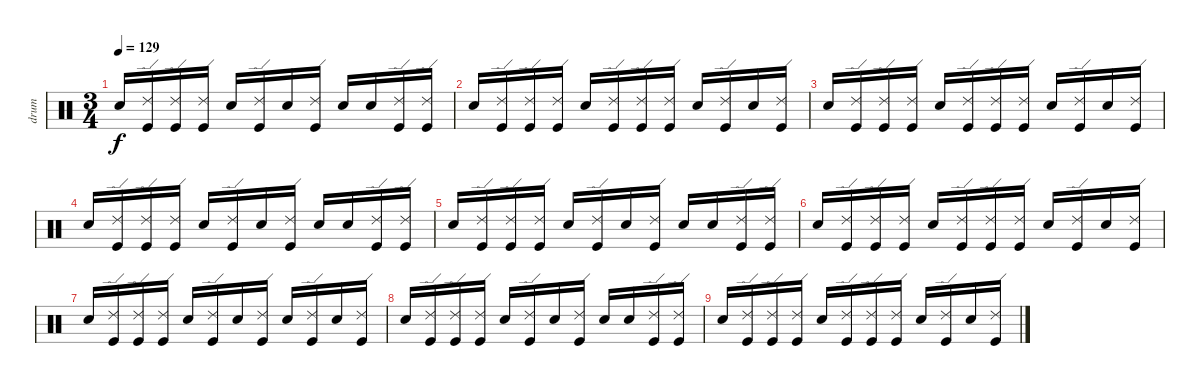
\track ("drum" "drum") {instrument percussion}
\staff {score}
\articulation defaults
\ts (3 4)
\tempo 129
\clef neutral
\ks c "Electric Snare (hit)".16{dy f}
("Kick (hit)" "Ride (edge) 2").16 ("Kick (hit)" "Ride (edge) 2").16 ("Kick (hit)" "Ride (edge) 2").16 "Electric Snare (hit)".16 ("Kick (hit)" "Ride (edge) 2").16 "Electric Snare (hit)".16 ("Kick (hit)" "Ride (edge) 2").16 "Electric Snare (hit)".16 "Electric Snare (hit)".16 ("Kick (hit)" "Ride (edge) 2").16 ("Kick (hit)" "Ride (edge) 2").16 |
"Electric Snare (hit)".16 ("Kick (hit)" "Ride (edge) 2").16 ("Kick (hit)" "Ride (edge) 2").16 ("Kick (hit)" "Ride (edge) 2").16 "Electric Snare (hit)".16 ("Kick (hit)" "Ride (edge) 2").16 ("Kick (hit)" "Ride (edge) 2").16 ("Kick (hit)" "Ride (edge) 2").16 "Electric Snare (hit)".16 ("Kick (hit)" "Ride (edge) 2").16 "Electric Snare (hit)".16 ("Kick (hit)" "Ride (edge) 2").16 |
"Electric Snare (hit)".16 ("Kick (hit)" "Ride (edge) 2").16 ("Kick (hit)" "Ride (edge) 2").16 ("Kick (hit)" "Ride (edge) 2").16 "Electric Snare (hit)".16 ("Kick (hit)" "Ride (edge) 2").16 ("Kick (hit)" "Ride (edge) 2").16 ("Kick (hit)" "Ride (edge) 2").16 "Electric Snare (hit)".16 ("Kick (hit)" "Ride (edge) 2").16 "Electric Snare (hit)".16 ("Kick (hit)" "Ride (edge) 2").16 |
"Electric Snare (hit)".16 ("Kick (hit)" "Ride (edge) 2").16 ("Kick (hit)" "Ride (edge) 2").16 ("Kick (hit)" "Ride (edge) 2").16 "Electric Snare (hit)".16 ("Kick (hit)" "Ride (edge) 2").16 "Electric Snare (hit)".16 ("Kick (hit)" "Ride (edge) 2").16 "Electric Snare (hit)".16 "Electric Snare (hit)".16 ("Kick (hit)" "Ride (edge) 2").16 ("Kick (hit)" "Ride (edge) 2").16 |
"Electric Snare (hit)".16 ("Kick (hit)" "Ride (edge) 2").16 ("Kick (hit)" "Ride (edge) 2").16 ("Kick (hit)" "Ride (edge) 2").16 "Electric Snare (hit)".16 ("Kick (hit)" "Ride (edge) 2").16 "Electric Snare (hit)".16 ("Kick (hit)" "Ride (edge) 2").16 "Electric Snare (hit)".16 "Electric Snare (hit)".16 ("Kick (hit)" "Ride (edge) 2").16 ("Kick (hit)" "Ride (edge) 2").16 |
"Electric Snare (hit)".16 ("Kick (hit)" "Ride (edge) 2").16 ("Kick (hit)" "Ride (edge) 2").16 ("Kick (hit)" "Ride (edge) 2").16 "Electric Snare (hit)".16 ("Kick (hit)" "Ride (edge) 2").16 ("Kick (hit)" "Ride (edge) 2").16 ("Kick (hit)" "Ride (edge) 2").16 "Electric Snare (hit)".16 ("Kick (hit)" "Ride (edge) 2").16 "Electric Snare (hit)".16 ("Kick (hit)" "Ride (edge) 2").16 |
"Electric Snare (hit)".16 ("Kick (hit)" "Ride (edge) 2").16 ("Kick (hit)" "Ride (edge) 2").16 ("Kick (hit)" "Ride (edge) 2").16 "Electric Snare (hit)".16 ("Kick (hit)" "Ride (edge) 2").16 "Electric Snare (hit)".16 ("Kick (hit)" "Ride (edge) 2").16 "Electric Snare (hit)".16 ("Kick (hit)" "Ride (edge) 2").16 "Electric Snare (hit)".16 ("Kick (hit)" "Ride (edge) 2").16 |
"Electric Snare (hit)".16 ("Kick (hit)" "Ride (edge) 2").16 ("Kick (hit)" "Ride (edge) 2").16 ("Kick (hit)" "Ride (edge) 2").16 "Electric Snare (hit)".16 ("Kick (hit)" "Ride (edge) 2").16 "Electric Snare (hit)".16 ("Kick (hit)" "Ride (edge) 2").16 "Electric Snare (hit)".16 "Electric Snare (hit)".16 ("Kick (hit)" "Ride (edge) 2").16 ("Kick (hit)" "Ride (edge) 2").16 |
"Electric Snare (hit)".16 ("Kick (hit)" "Ride (edge) 2").16 ("Kick (hit)" "Ride (edge) 2").16 ("Kick (hit)" "Ride (edge) 2").16 "Electric Snare (hit)".16 ("Kick (hit)" "Ride (edge) 2").16 ("Kick (hit)" "Ride (edge) 2").16 ("Kick (hit)" "Ride (edge) 2").16 "Electric Snare (hit)".16 ("Kick (hit)" "Ride (edge) 2").16 "Electric Snare (hit)".16 ("Kick (hit)" "Ride (edge) 2").16
